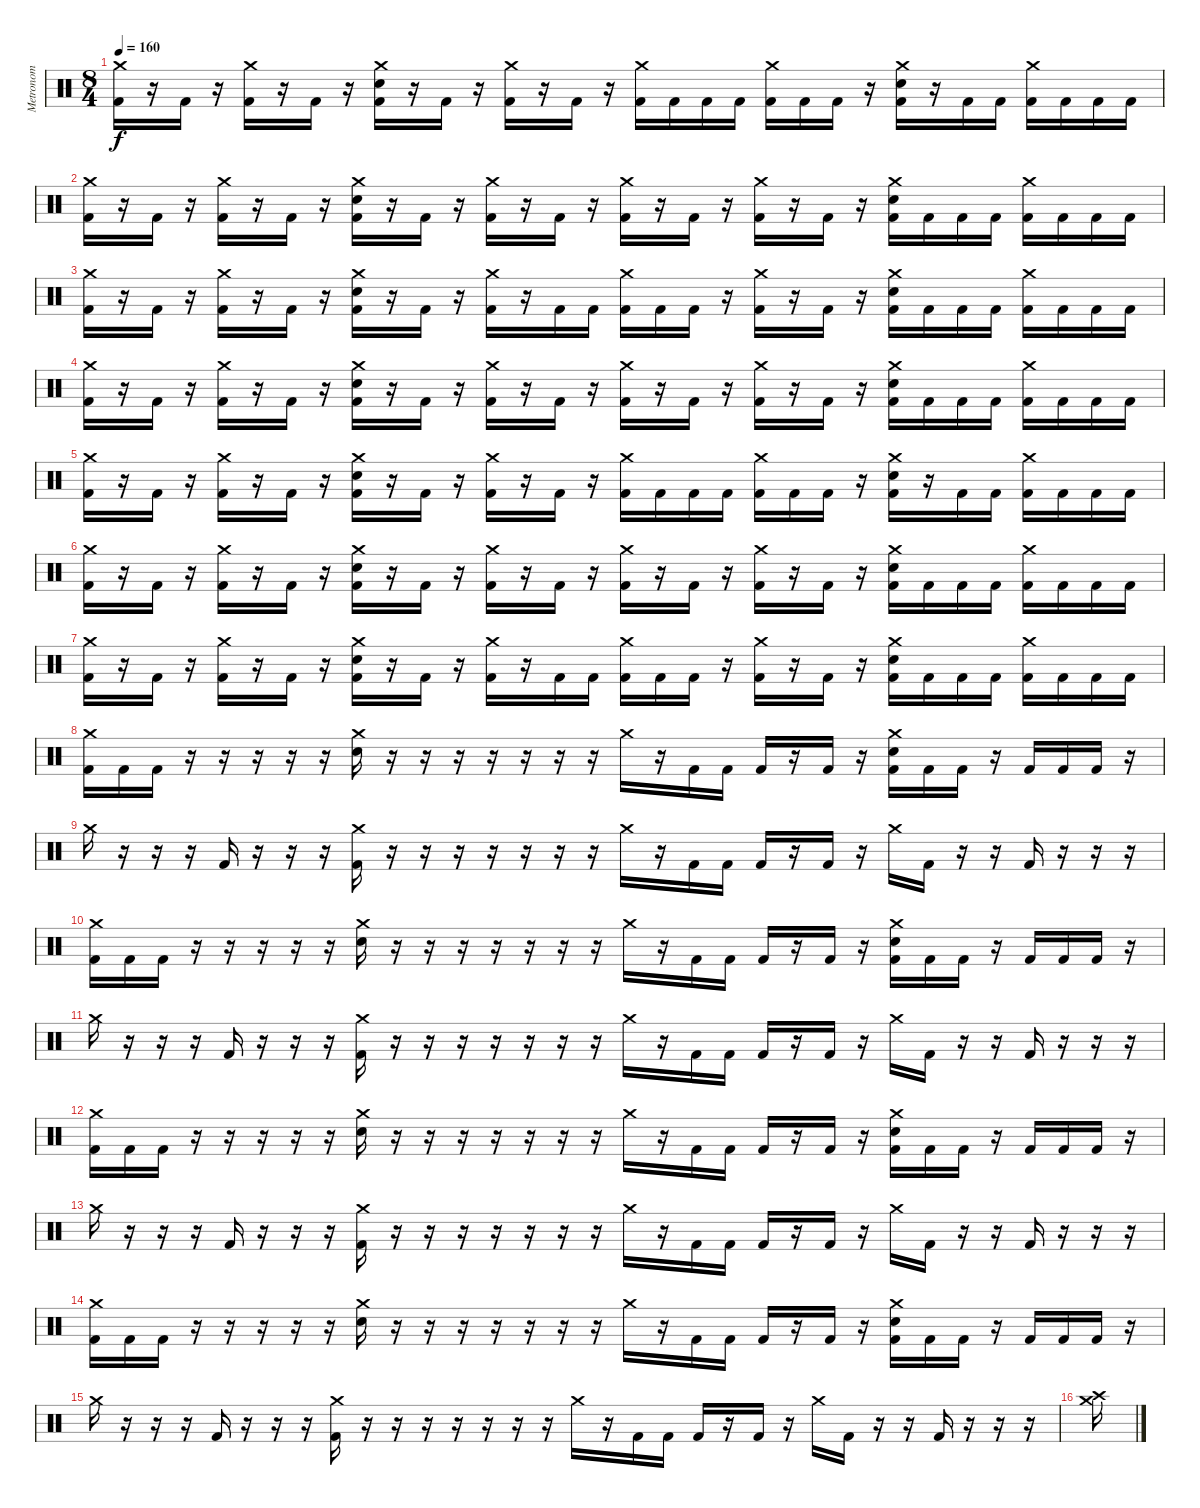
\track ("Metronom" "Metronom") {instrument percussion}
\staff
\articulation defaults
\ts (8 4)
\tempo 160
\clef neutral
\ks c
("Crash medium (hit)" "Kick (hit) 2").16{dy f} r.16 "Kick (hit) 2".16 r.16 ("Crash medium (hit)" "Kick (hit) 2").16 r.16 "Kick (hit) 2".16 r.16 ("Crash medium (hit)" "Electric Snare (hit)" "Kick (hit) 2").16 r.16 "Kick (hit) 2".16 r.16 ("Crash medium (hit)" "Kick (hit) 2").16 r.16 "Kick (hit) 2".16 r.16 ("Crash medium (hit)" "Kick (hit) 2").16 "Kick (hit) 2".16 "Kick (hit) 2".16 "Kick (hit) 2".16 ("Crash medium (hit)" "Kick (hit) 2").16 "Kick (hit) 2".16 "Kick (hit) 2".16 r.16 ("Crash medium (hit)" "Electric Snare (hit)" "Kick (hit) 2").16 r.16 "Kick (hit) 2".16 "Kick (hit) 2".16 ("Crash medium (hit)" "Kick (hit) 2").16 "Kick (hit) 2".16 "Kick (hit) 2".16 "Kick (hit) 2".16 |
("Crash medium (hit)" "Kick (hit) 2").16 r.16 "Kick (hit) 2".16 r.16 ("Crash medium (hit)" "Kick (hit) 2").16 r.16 "Kick (hit) 2".16 r.16 ("Crash medium (hit)" "Electric Snare (hit)" "Kick (hit) 2").16 r.16 "Kick (hit) 2".16 r.16 ("Crash medium (hit)" "Kick (hit) 2").16 r.16 "Kick (hit) 2".16 r.16 ("Crash medium (hit)" "Kick (hit) 2").16 r.16 "Kick (hit) 2".16 r.16 ("Crash medium (hit)" "Kick (hit) 2").16 r.16 "Kick (hit) 2".16 r.16 ("Crash medium (hit)" "Electric Snare (hit)" "Kick (hit) 2").16 "Kick (hit) 2".16 "Kick (hit) 2".16 "Kick (hit) 2".16 ("Crash medium (hit)" "Kick (hit) 2").16 "Kick (hit) 2".16 "Kick (hit) 2".16 "Kick (hit) 2".16 |
("Crash medium (hit)" "Kick (hit) 2").16 r.16 "Kick (hit) 2".16 r.16 ("Crash medium (hit)" "Kick (hit) 2").16 r.16 "Kick (hit) 2".16 r.16 ("Crash medium (hit)" "Electric Snare (hit)" "Kick (hit) 2").16 r.16 "Kick (hit) 2".16 r.16 ("Crash medium (hit)" "Kick (hit) 2").16 r.16 "Kick (hit) 2".16 "Kick (hit) 2".16 ("Crash medium (hit)" "Kick (hit) 2").16 "Kick (hit) 2".16 "Kick (hit) 2".16 r.16 ("Crash medium (hit)" "Kick (hit) 2").16 r.16 "Kick (hit) 2".16 r.16 ("Crash medium (hit)" "Electric Snare (hit)" "Kick (hit) 2").16 "Kick (hit) 2".16 "Kick (hit) 2".16 "Kick (hit) 2".16 ("Crash medium (hit)" "Kick (hit) 2").16 "Kick (hit) 2".16 "Kick (hit) 2".16 "Kick (hit) 2".16 |
("Crash medium (hit)" "Kick (hit) 2").16 r.16 "Kick (hit) 2".16 r.16 ("Crash medium (hit)" "Kick (hit) 2").16 r.16 "Kick (hit) 2".16 r.16 ("Crash medium (hit)" "Electric Snare (hit)" "Kick (hit) 2").16 r.16 "Kick (hit) 2".16 r.16 ("Crash medium (hit)" "Kick (hit) 2").16 r.16 "Kick (hit) 2".16 r.16 ("Crash medium (hit)" "Kick (hit) 2").16 r.16 "Kick (hit) 2".16 r.16 ("Crash medium (hit)" "Kick (hit) 2").16 r.16 "Kick (hit) 2".16 r.16 ("Crash medium (hit)" "Electric Snare (hit)" "Kick (hit) 2").16 "Kick (hit) 2".16 "Kick (hit) 2".16 "Kick (hit) 2".16 ("Crash medium (hit)" "Kick (hit) 2").16 "Kick (hit) 2".16 "Kick (hit) 2".16 "Kick (hit) 2".16 |
("Crash medium (hit)" "Kick (hit) 2").16 r.16 "Kick (hit) 2".16 r.16 ("Crash medium (hit)" "Kick (hit) 2").16 r.16 "Kick (hit) 2".16 r.16 ("Crash medium (hit)" "Electric Snare (hit)" "Kick (hit) 2").16 r.16 "Kick (hit) 2".16 r.16 ("Crash medium (hit)" "Kick (hit) 2").16 r.16 "Kick (hit) 2".16 r.16 ("Crash medium (hit)" "Kick (hit) 2").16 "Kick (hit) 2".16 "Kick (hit) 2".16 "Kick (hit) 2".16 ("Crash medium (hit)" "Kick (hit) 2").16 "Kick (hit) 2".16 "Kick (hit) 2".16 r.16 ("Crash medium (hit)" "Electric Snare (hit)" "Kick (hit) 2").16 r.16 "Kick (hit) 2".16 "Kick (hit) 2".16 ("Crash medium (hit)" "Kick (hit) 2").16 "Kick (hit) 2".16 "Kick (hit) 2".16 "Kick (hit) 2".16 |
("Crash medium (hit)" "Kick (hit) 2").16 r.16 "Kick (hit) 2".16 r.16 ("Crash medium (hit)" "Kick (hit) 2").16 r.16 "Kick (hit) 2".16 r.16 ("Crash medium (hit)" "Electric Snare (hit)" "Kick (hit) 2").16 r.16 "Kick (hit) 2".16 r.16 ("Crash medium (hit)" "Kick (hit) 2").16 r.16 "Kick (hit) 2".16 r.16 ("Crash medium (hit)" "Kick (hit) 2").16 r.16 "Kick (hit) 2".16 r.16 ("Crash medium (hit)" "Kick (hit) 2").16 r.16 "Kick (hit) 2".16 r.16 ("Crash medium (hit)" "Electric Snare (hit)" "Kick (hit) 2").16 "Kick (hit) 2".16 "Kick (hit) 2".16 "Kick (hit) 2".16 ("Crash medium (hit)" "Kick (hit) 2").16 "Kick (hit) 2".16 "Kick (hit) 2".16 "Kick (hit) 2".16 |
("Crash medium (hit)" "Kick (hit) 2").16 r.16 "Kick (hit) 2".16 r.16 ("Crash medium (hit)" "Kick (hit) 2").16 r.16 "Kick (hit) 2".16 r.16 ("Crash medium (hit)" "Electric Snare (hit)" "Kick (hit) 2").16 r.16 "Kick (hit) 2".16 r.16 ("Crash medium (hit)" "Kick (hit) 2").16 r.16 "Kick (hit) 2".16 "Kick (hit) 2".16 ("Crash medium (hit)" "Kick (hit) 2").16 "Kick (hit) 2".16 "Kick (hit) 2".16 r.16 ("Crash medium (hit)" "Kick (hit) 2").16 r.16 "Kick (hit) 2".16 r.16 ("Crash medium (hit)" "Electric Snare (hit)" "Kick (hit) 2").16 "Kick (hit) 2".16 "Kick (hit) 2".16 "Kick (hit) 2".16 ("Crash medium (hit)" "Kick (hit) 2").16 "Kick (hit) 2".16 "Kick (hit) 2".16 "Kick (hit) 2".16 |
("Crash medium (hit)" "Kick (hit) 2").16 "Kick (hit) 2".16 "Kick (hit) 2".16 r.16 r.16 r.16 r.16 r.16 ("Crash medium (hit)" "Electric Snare (hit)").16 r.16 r.16 r.16 r.16 r.16 r.16 r.16 "Crash medium (hit)".16 r.16 "Kick (hit) 2".16 "Kick (hit) 2".16 "Kick (hit) 2".16 r.16 "Kick (hit) 2".16 r.16 ("Crash medium (hit)" "Electric Snare (hit)" "Kick (hit) 2").16 "Kick (hit) 2".16 "Kick (hit) 2".16 r.16 "Kick (hit) 2".16 "Kick (hit) 2".16 "Kick (hit) 2".16 r.16 |
"Crash medium (hit)".16 r.16 r.16 r.16 "Kick (hit) 2".16 r.16 r.16 r.16 ("Crash medium (hit)" "Kick (hit) 2").16 r.16 r.16 r.16 r.16 r.16 r.16 r.16 "Crash medium (hit)".16 r.16 "Kick (hit) 2".16 "Kick (hit) 2".16 "Kick (hit) 2".16 r.16 "Kick (hit) 2".16 r.16 "Crash medium (hit)".16 "Kick (hit) 2".16 r.16 r.16 "Kick (hit) 2".16 r.16 r.16 r.16 |
("Crash medium (hit)" "Kick (hit) 2").16 "Kick (hit) 2".16 "Kick (hit) 2".16 r.16 r.16 r.16 r.16 r.16 ("Crash medium (hit)" "Electric Snare (hit)").16 r.16 r.16 r.16 r.16 r.16 r.16 r.16 "Crash medium (hit)".16 r.16 "Kick (hit) 2".16 "Kick (hit) 2".16 "Kick (hit) 2".16 r.16 "Kick (hit) 2".16 r.16 ("Crash medium (hit)" "Electric Snare (hit)" "Kick (hit) 2").16 "Kick (hit) 2".16 "Kick (hit) 2".16 r.16 "Kick (hit) 2".16 "Kick (hit) 2".16 "Kick (hit) 2".16 r.16 |
"Crash medium (hit)".16 r.16 r.16 r.16 "Kick (hit) 2".16 r.16 r.16 r.16 ("Crash medium (hit)" "Kick (hit) 2").16 r.16 r.16 r.16 r.16 r.16 r.16 r.16 "Crash medium (hit)".16 r.16 "Kick (hit) 2".16 "Kick (hit) 2".16 "Kick (hit) 2".16 r.16 "Kick (hit) 2".16 r.16 "Crash medium (hit)".16 "Kick (hit) 2".16 r.16 r.16 "Kick (hit) 2".16 r.16 r.16 r.16 |
("Crash medium (hit)" "Kick (hit) 2").16 "Kick (hit) 2".16 "Kick (hit) 2".16 r.16 r.16 r.16 r.16 r.16 ("Crash medium (hit)" "Electric Snare (hit)").16 r.16 r.16 r.16 r.16 r.16 r.16 r.16 "Crash medium (hit)".16 r.16 "Kick (hit) 2".16 "Kick (hit) 2".16 "Kick (hit) 2".16 r.16 "Kick (hit) 2".16 r.16 ("Crash medium (hit)" "Electric Snare (hit)" "Kick (hit) 2").16 "Kick (hit) 2".16 "Kick (hit) 2".16 r.16 "Kick (hit) 2".16 "Kick (hit) 2".16 "Kick (hit) 2".16 r.16 |
"Crash medium (hit)".16 r.16 r.16 r.16 "Kick (hit) 2".16 r.16 r.16 r.16 ("Crash medium (hit)" "Kick (hit) 2").16 r.16 r.16 r.16 r.16 r.16 r.16 r.16 "Crash medium (hit)".16 r.16 "Kick (hit) 2".16 "Kick (hit) 2".16 "Kick (hit) 2".16 r.16 "Kick (hit) 2".16 r.16 "Crash medium (hit)".16 "Kick (hit) 2".16 r.16 r.16 "Kick (hit) 2".16 r.16 r.16 r.16 |
("Crash medium (hit)" "Kick (hit) 2").16 "Kick (hit) 2".16 "Kick (hit) 2".16 r.16 r.16 r.16 r.16 r.16 ("Crash medium (hit)" "Electric Snare (hit)").16 r.16 r.16 r.16 r.16 r.16 r.16 r.16 "Crash medium (hit)".16 r.16 "Kick (hit) 2".16 "Kick (hit) 2".16 "Kick (hit) 2".16 r.16 "Kick (hit) 2".16 r.16 ("Crash medium (hit)" "Electric Snare (hit)" "Kick (hit) 2").16 "Kick (hit) 2".16 "Kick (hit) 2".16 r.16 "Kick (hit) 2".16 "Kick (hit) 2".16 "Kick (hit) 2".16 r.16 |
"Crash medium (hit)".16 r.16 r.16 r.16 "Kick (hit) 2".16 r.16 r.16 r.16 ("Crash medium (hit)" "Kick (hit) 2").16 r.16 r.16 r.16 r.16 r.16 r.16 r.16 "Crash medium (hit)".16 r.16 "Kick (hit) 2".16 "Kick (hit) 2".16 "Kick (hit) 2".16 r.16 "Kick (hit) 2".16 r.16 "Crash medium (hit)".16 "Kick (hit) 2".16 r.16 r.16 "Kick (hit) 2".16 r.16 r.16 r.16 |
("Crash high (hit)" "Crash medium (hit)").16
